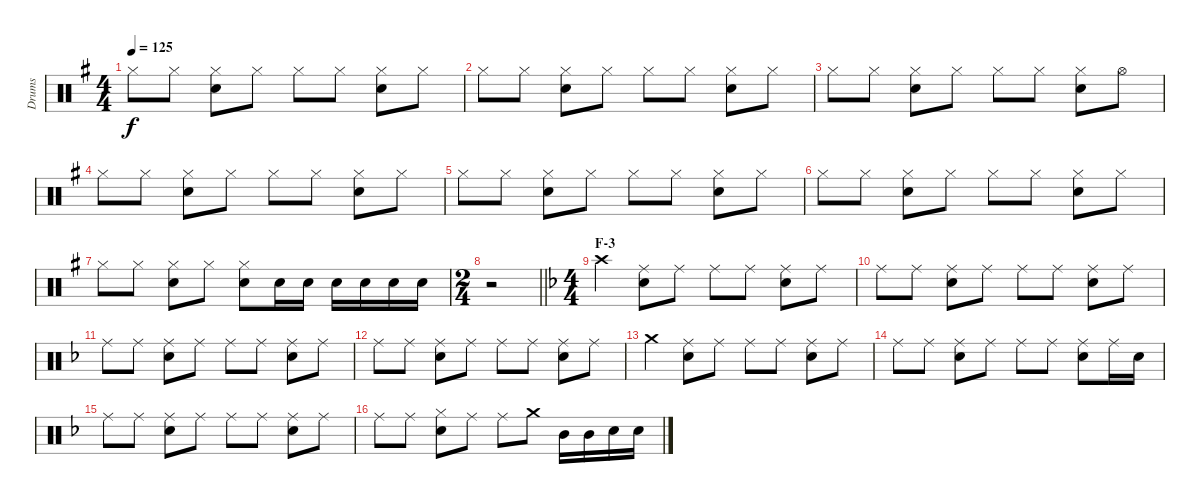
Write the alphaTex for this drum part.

\track ("Drums" "Drums") {instrument percussion}
\staff {score}
\articulation defaults
\ts (4 4)
\tempo 125
\clef neutral
\ks g "Hi-Hat (closed)".8{dy f} "Hi-Hat (closed)".8
("Hi-Hat (closed)" "Snare (hit) 2").8 "Hi-Hat (closed)".8 "Hi-Hat (closed)".8 "Hi-Hat (closed)".8 ("Hi-Hat (closed)" "Snare (hit) 2").8 "Hi-Hat (closed)".8 |
"Hi-Hat (closed)".8 "Hi-Hat (closed)".8 ("Hi-Hat (closed)" "Snare (hit) 2").8 "Hi-Hat (closed)".8 "Hi-Hat (closed)".8 "Hi-Hat (closed)".8 ("Hi-Hat (closed)" "Snare (hit) 2").8 "Hi-Hat (closed)".8 |
"Hi-Hat (closed)".8 "Hi-Hat (closed)".8 ("Hi-Hat (closed)" "Snare (hit) 2").8 "Hi-Hat (closed)".8 "Hi-Hat (closed)".8 "Hi-Hat (closed)".8 ("Hi-Hat (closed)" "Snare (hit) 2").8 "Hi-Hat (open)".8 |
"Hi-Hat (closed)".8 "Hi-Hat (closed)".8 ("Hi-Hat (closed)" "Snare (hit) 2").8 "Hi-Hat (closed)".8 "Hi-Hat (closed)".8 "Hi-Hat (closed)".8 ("Hi-Hat (closed)" "Snare (hit) 2").8 "Hi-Hat (closed)".8 |
"Hi-Hat (closed)".8 "Hi-Hat (closed)".8 ("Hi-Hat (closed)" "Snare (hit) 2").8 "Hi-Hat (closed)".8 "Hi-Hat (closed)".8 "Hi-Hat (closed)".8 ("Hi-Hat (closed)" "Snare (hit) 2").8 "Hi-Hat (closed)".8 |
"Hi-Hat (closed)".8 "Hi-Hat (closed)".8 ("Hi-Hat (closed)" "Snare (hit) 2").8 "Hi-Hat (closed)".8 "Hi-Hat (closed)".8 "Hi-Hat (closed)".8 ("Hi-Hat (closed)" "Snare (hit) 2").8 "Hi-Hat (closed)".8 |
"Hi-Hat (closed)".8 "Hi-Hat (closed)".8 ("Hi-Hat (closed)" "Snare (hit) 2").8 "Hi-Hat (closed)".8 ("Hi-Hat (closed)" "Snare (hit) 2").8 "Snare (hit) 2".16 "Snare (hit) 2".16 "Snare (hit) 2".16 "Snare (hit) 2".16 "Snare (hit) 2".16 "Snare (hit) 2".16 |
\ts (2 4)
\barLineRight lightlight
r.2 |
\ts (4 4)
\section ("" "F-3")
\ks f "Crash high (hit)".4
("Ride (middle)" "Snare (hit) 2").8 "Ride (middle)".8 "Ride (middle)".8 "Ride (middle)".8 ("Ride (middle)" "Snare (hit) 2").8 "Ride (middle)".8 |
"Ride (middle)".8 "Ride (middle)".8 ("Ride (middle)" "Snare (hit) 2").8 "Ride (middle)".8 "Ride (middle)".8 "Ride (middle)".8 ("Ride (middle)" "Snare (hit) 2").8 "Ride (middle)".8 |
"Ride (middle)".8 "Ride (middle)".8 ("Ride (middle)" "Snare (hit) 2").8 "Ride (middle)".8 "Ride (middle)".8 "Ride (middle)".8 ("Ride (middle)" "Snare (hit) 2").8 "Ride (middle)".8 |
"Ride (middle)".8 "Ride (middle)".8 ("Ride (middle)" "Snare (hit) 2").8 "Ride (middle)".8 "Ride (middle)".8 "Ride (middle)".8 ("Ride (middle)" "Snare (hit) 2").8 "Ride (middle)".8 |
"Crash medium (hit)".4 ("Ride (middle)" "Snare (hit) 2").8 "Ride (middle)".8 "Ride (middle)".8 "Ride (middle)".8 ("Ride (middle)" "Snare (hit) 2").8 "Ride (middle)".8 |
"Ride (middle)".8 "Ride (middle)".8 ("Ride (middle)" "Snare (hit) 2").8 "Ride (middle)".8 "Ride (middle)".8 "Ride (middle)".8 ("Ride (middle)" "Snare (hit) 2").8 "Ride (middle)".16 "Snare (hit) 2".16 |
"Ride (middle)".8 "Ride (middle)".8 ("Ride (middle)" "Snare (hit) 2").8 "Ride (middle)".8 "Ride (middle)".8 "Ride (middle)".8 ("Ride (middle)" "Snare (hit) 2").8 "Ride (middle)".8 |
"Ride (middle)".8 "Ride (middle)".8 ("Hi-Hat (closed)" "Snare (hit) 2").8 "Ride (middle)".8 "Ride (middle)".8 "Crash medium (hit)".8 "Mid Tom (hit)".16 "Mid Tom (hit)".16 "Snare (hit) 2".16 "Snare (hit) 2".16
